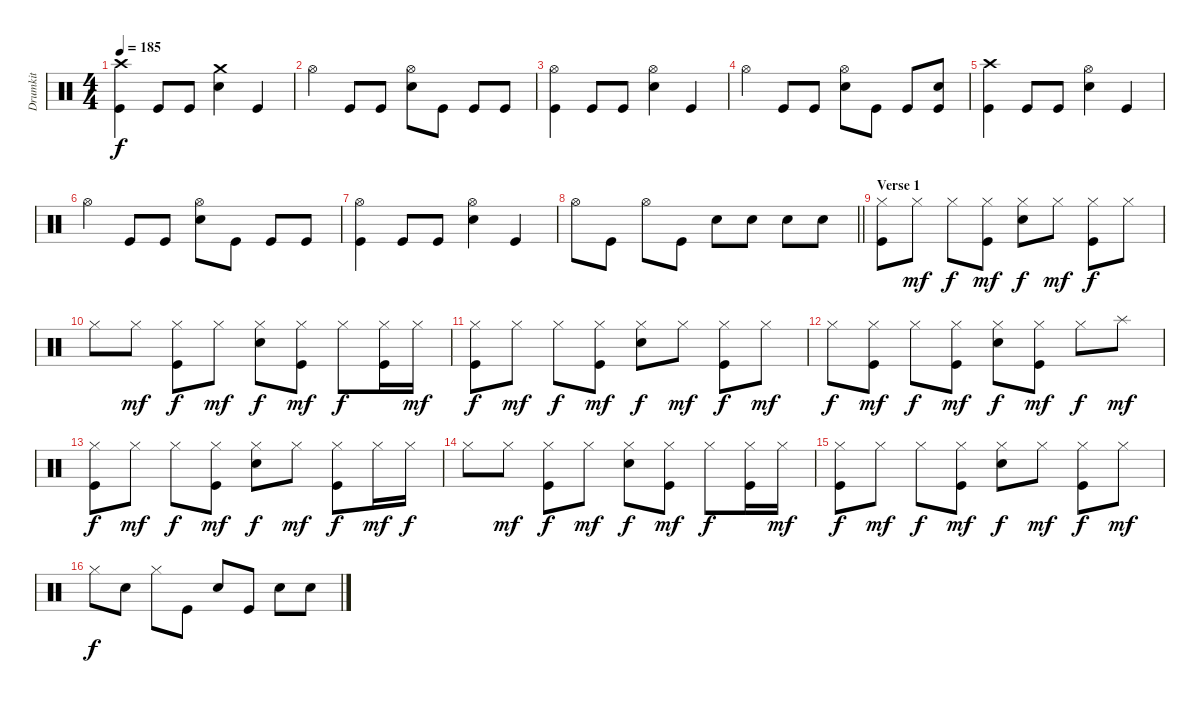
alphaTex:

\track ("Drumkit" "Drumkit") {instrument percussion}
\staff {score}
\articulation defaults
\ts (4 4)
\tempo 185
\clef neutral
\ks c
("Kick (hit)" "Crash high (hit)").4{dy f} "Kick (hit)".8 "Kick (hit)".8 ("Snare (hit) 2" "Crash medium (hit)").4 "Kick (hit)".4 |
"Hi-Hat (open)".4 "Kick (hit)".8 "Kick (hit)".8 ("Snare (hit) 2" "Hi-Hat (open)").8 "Kick (hit)".8 "Kick (hit)".8 "Kick (hit)".8 |
("Hi-Hat (open)" "Kick (hit)").4 "Kick (hit)".8 "Kick (hit)".8 ("Snare (hit) 2" "Hi-Hat (open)").4 "Kick (hit)".4 |
"Hi-Hat (open)".4 "Kick (hit)".8 "Kick (hit)".8 ("Snare (hit) 2" "Hi-Hat (open)").8 "Kick (hit)".8 "Kick (hit)".8 ("Snare (hit) 2" "Kick (hit)").8 |
("Crash high (hit)" "Kick (hit)").4 "Kick (hit)".8 "Kick (hit)".8 ("Snare (hit) 2" "Hi-Hat (open)").4 "Kick (hit)".4 |
"Hi-Hat (open)".4 "Kick (hit)".8 "Kick (hit)".8 ("Snare (hit) 2" "Hi-Hat (open)").8 "Kick (hit)".8 "Kick (hit)".8 "Kick (hit)".8 |
("Hi-Hat (open)" "Kick (hit)").4 "Kick (hit)".8 "Kick (hit)".8 ("Snare (hit) 2" "Hi-Hat (open)").4 "Kick (hit)".4 |
\barLineRight lightlight "Hi-Hat (open)".8 "Kick (hit)".8 "Hi-Hat (open)".8 "Kick (hit)".8 "Snare (hit) 2".8 "Snare (hit) 2".8 "Snare (hit) 2".8 "Snare (hit) 2".8
|
\section ("" "Verse 1")
("Hi-Hat (closed)" "Kick (hit)").8 "Hi-Hat (closed)".8{dy mf} "Hi-Hat (closed)".8{dy f} ("Hi-Hat (closed)" "Kick (hit)").8{dy mf} ("Hi-Hat (closed)" "Snare (hit) 2").8{dy f} "Hi-Hat (closed)".8{dy mf} ("Hi-Hat (closed)" "Kick (hit)").8{dy f} "Hi-Hat (closed)".8 |
"Hi-Hat (closed)".8 "Hi-Hat (closed)".8{dy mf} ("Hi-Hat (closed)" "Kick (hit)").8{dy f} "Hi-Hat (closed)".8{dy mf} ("Hi-Hat (closed)" "Snare (hit) 2").8{dy f} ("Hi-Hat (closed)" "Kick (hit)").8{dy mf} "Hi-Hat (closed)".8{dy f} ("Hi-Hat (closed)" "Kick (hit)").16 "Hi-Hat (closed)".16{dy mf} |
("Hi-Hat (closed)" "Kick (hit)").8{dy f} "Hi-Hat (closed)".8{dy mf} "Hi-Hat (closed)".8{dy f} ("Hi-Hat (closed)" "Kick (hit)").8{dy mf} ("Hi-Hat (closed)" "Snare (hit) 2").8{dy f} "Hi-Hat (closed)".8{dy mf} ("Hi-Hat (closed)" "Kick (hit)").8{dy f} "Hi-Hat (closed)".8{dy mf} |
"Hi-Hat (closed)".8{dy f} ("Hi-Hat (closed)" "Kick (hit)").8{dy mf} "Hi-Hat (closed)".8{dy f} ("Hi-Hat (closed)" "Kick (hit)").8{dy mf} ("Hi-Hat (closed)" "Snare (hit) 2").8{dy f} ("Hi-Hat (closed)" "Kick (hit)").8{dy mf} "Hi-Hat (closed)".8{dy f} "Splash (hit)".8{dy mf} |
("Hi-Hat (closed)" "Kick (hit)").8{dy f} "Hi-Hat (closed)".8{dy mf} "Hi-Hat (closed)".8{dy f} ("Hi-Hat (closed)" "Kick (hit)").8{dy mf} ("Hi-Hat (closed)" "Snare (hit) 2").8{dy f} "Hi-Hat (closed)".8{dy mf} ("Hi-Hat (closed)" "Kick (hit)").8{dy f} "Hi-Hat (closed)".16{dy mf} "Hi-Hat (closed)".16{dy f} |
"Hi-Hat (closed)".8 "Hi-Hat (closed)".8{dy mf} ("Hi-Hat (closed)" "Kick (hit)").8{dy f} "Hi-Hat (closed)".8{dy mf} ("Hi-Hat (closed)" "Snare (hit) 2").8{dy f} ("Hi-Hat (closed)" "Kick (hit)").8{dy mf} "Hi-Hat (closed)".8{dy f} ("Hi-Hat (closed)" "Kick (hit)").16 "Hi-Hat (closed)".16{dy mf} |
("Hi-Hat (closed)" "Kick (hit)").8{dy f} "Hi-Hat (closed)".8{dy mf} "Hi-Hat (closed)".8{dy f} ("Hi-Hat (closed)" "Kick (hit)").8{dy mf} ("Hi-Hat (closed)" "Snare (hit) 2").8{dy f} "Hi-Hat (closed)".8{dy mf} ("Hi-Hat (closed)" "Kick (hit)").8{dy f} "Hi-Hat (closed)".8{dy mf} |
"Hi-Hat (closed)".8{dy f} "Snare (hit) 2".8 "Hi-Hat (closed)".8 "Kick (hit)".8 "Snare (hit) 2".8 "Kick (hit)".8 "Snare (hit) 2".8 "Snare (hit) 2".8
